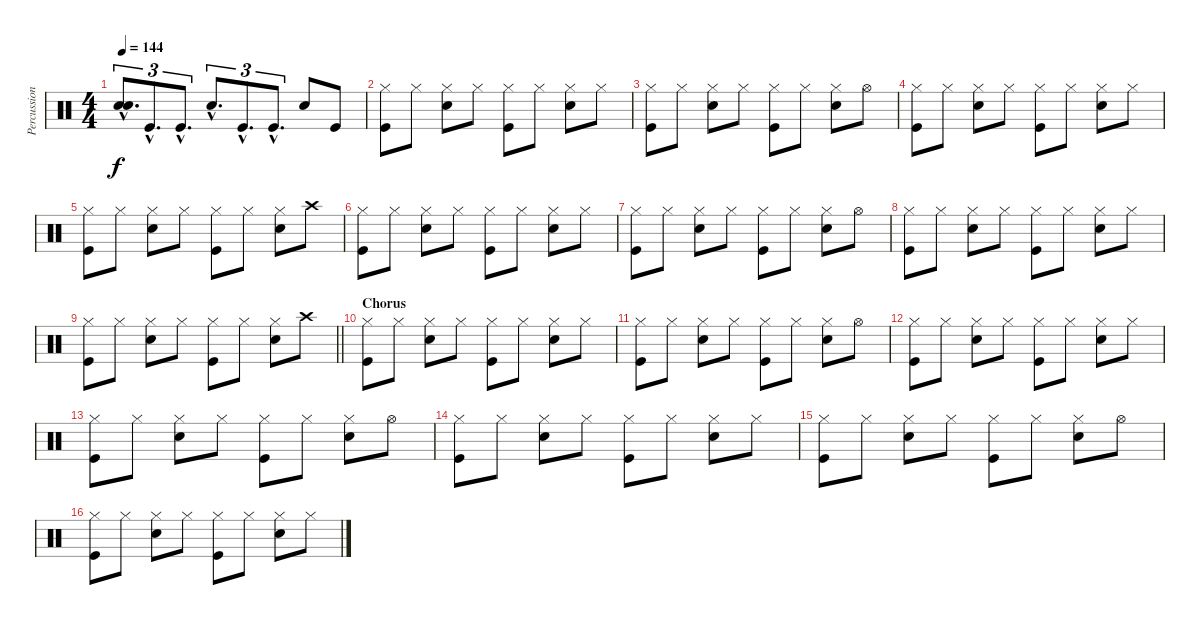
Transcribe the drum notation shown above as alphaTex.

\track ("Percussion" "Percussion") {instrument percussion}
\staff {score}
\articulation defaults
\ts (4 4)
\tempo 144
\clef neutral
\ks c
("Snare (hit) 2"{hac} "Snare (hit) 2"{hac}).8{d tu (3 2) dy f} "Kick (hit)"{hac}.8{d tu (3 2)} "Kick (hit)"{hac}.8{d tu (3 2)} "Snare (hit) 2"{hac}.8{d tu (3 2)} "Kick (hit)"{hac}.8{d tu (3 2)} "Kick (hit)"{hac}.8{d tu (3 2)} "Snare (hit) 2".8 "Kick (hit)".8 |
("Hi-Hat (closed)" "Kick (hit)").8 "Hi-Hat (closed)".8 ("Hi-Hat (closed)" "Snare (hit) 2").8 "Hi-Hat (closed)".8 ("Hi-Hat (closed)" "Kick (hit)").8 "Hi-Hat (closed)".8 ("Hi-Hat (closed)" "Snare (hit) 2").8 "Hi-Hat (closed)".8 |
("Hi-Hat (closed)" "Kick (hit)").8 "Hi-Hat (closed)".8 ("Hi-Hat (closed)" "Snare (hit) 2").8 "Hi-Hat (closed)".8 ("Hi-Hat (closed)" "Kick (hit)").8 "Hi-Hat (closed)".8 ("Hi-Hat (closed)" "Snare (hit) 2").8 "Hi-Hat (open)".8 |
("Hi-Hat (closed)" "Kick (hit)").8 "Hi-Hat (closed)".8 ("Hi-Hat (closed)" "Snare (hit) 2").8 "Hi-Hat (closed)".8 ("Hi-Hat (closed)" "Kick (hit)").8 "Hi-Hat (closed)".8 ("Hi-Hat (closed)" "Snare (hit) 2").8 "Hi-Hat (closed)".8 |
("Hi-Hat (closed)" "Kick (hit)").8 "Hi-Hat (closed)".8 ("Hi-Hat (closed)" "Snare (hit) 2").8 "Hi-Hat (closed)".8 ("Hi-Hat (closed)" "Kick (hit)").8 "Hi-Hat (closed)".8 ("Hi-Hat (closed)" "Snare (hit) 2").8 "Crash high (hit)".8 |
("Hi-Hat (closed)" "Kick (hit)").8 "Hi-Hat (closed)".8 ("Hi-Hat (closed)" "Snare (hit) 2").8 "Hi-Hat (closed)".8 ("Hi-Hat (closed)" "Kick (hit)").8 "Hi-Hat (closed)".8 ("Hi-Hat (closed)" "Snare (hit) 2").8 "Hi-Hat (closed)".8 |
("Hi-Hat (closed)" "Kick (hit)").8 "Hi-Hat (closed)".8 ("Hi-Hat (closed)" "Snare (hit) 2").8 "Hi-Hat (closed)".8 ("Hi-Hat (closed)" "Kick (hit)").8 "Hi-Hat (closed)".8 ("Hi-Hat (closed)" "Snare (hit) 2").8 "Hi-Hat (open)".8 |
("Hi-Hat (closed)" "Kick (hit)").8 "Hi-Hat (closed)".8 ("Hi-Hat (closed)" "Snare (hit) 2").8 "Hi-Hat (closed)".8 ("Hi-Hat (closed)" "Kick (hit)").8 "Hi-Hat (closed)".8 ("Hi-Hat (closed)" "Snare (hit) 2").8 "Hi-Hat (closed)".8 |
\barLineRight lightlight
("Hi-Hat (closed)" "Kick (hit)").8 "Hi-Hat (closed)".8 ("Hi-Hat (closed)" "Snare (hit) 2").8 "Hi-Hat (closed)".8 ("Hi-Hat (closed)" "Kick (hit)").8 "Hi-Hat (closed)".8 ("Hi-Hat (closed)" "Snare (hit) 2").8 "Crash high (hit)".8 |
\section ("" "Chorus")
("Hi-Hat (closed)" "Kick (hit)").8 "Hi-Hat (closed)".8 ("Hi-Hat (closed)" "Snare (hit) 2").8 "Hi-Hat (closed)".8 ("Hi-Hat (closed)" "Kick (hit)").8 "Hi-Hat (closed)".8 ("Hi-Hat (closed)" "Snare (hit) 2").8 "Hi-Hat (closed)".8 |
("Hi-Hat (closed)" "Kick (hit)").8 "Hi-Hat (closed)".8 ("Hi-Hat (closed)" "Snare (hit) 2").8 "Hi-Hat (closed)".8 ("Hi-Hat (closed)" "Kick (hit)").8 "Hi-Hat (closed)".8 ("Hi-Hat (closed)" "Snare (hit) 2").8 "Hi-Hat (open)".8 |
("Hi-Hat (closed)" "Kick (hit)").8 "Hi-Hat (closed)".8 ("Hi-Hat (closed)" "Snare (hit) 2").8 "Hi-Hat (closed)".8 ("Hi-Hat (closed)" "Kick (hit)").8 "Hi-Hat (closed)".8 ("Hi-Hat (closed)" "Snare (hit) 2").8 "Hi-Hat (closed)".8 |
("Hi-Hat (closed)" "Kick (hit)").8 "Hi-Hat (closed)".8 ("Hi-Hat (closed)" "Snare (hit) 2").8 "Hi-Hat (closed)".8 ("Hi-Hat (closed)" "Kick (hit)").8 "Hi-Hat (closed)".8 ("Hi-Hat (closed)" "Snare (hit) 2").8 "Hi-Hat (open)".8 |
("Hi-Hat (closed)" "Kick (hit)").8 "Hi-Hat (closed)".8 ("Hi-Hat (closed)" "Snare (hit) 2").8 "Hi-Hat (closed)".8 ("Hi-Hat (closed)" "Kick (hit)").8 "Hi-Hat (closed)".8 ("Hi-Hat (closed)" "Snare (hit) 2").8 "Hi-Hat (closed)".8 |
("Hi-Hat (closed)" "Kick (hit)").8 "Hi-Hat (closed)".8 ("Hi-Hat (closed)" "Snare (hit) 2").8 "Hi-Hat (closed)".8 ("Hi-Hat (closed)" "Kick (hit)").8 "Hi-Hat (closed)".8 ("Hi-Hat (closed)" "Snare (hit) 2").8 "Hi-Hat (open)".8 |
("Hi-Hat (closed)" "Kick (hit)").8 "Hi-Hat (closed)".8 ("Hi-Hat (closed)" "Snare (hit) 2").8 "Hi-Hat (closed)".8 ("Hi-Hat (closed)" "Kick (hit)").8 "Hi-Hat (closed)".8 ("Hi-Hat (closed)" "Snare (hit) 2").8 "Hi-Hat (closed)".8
